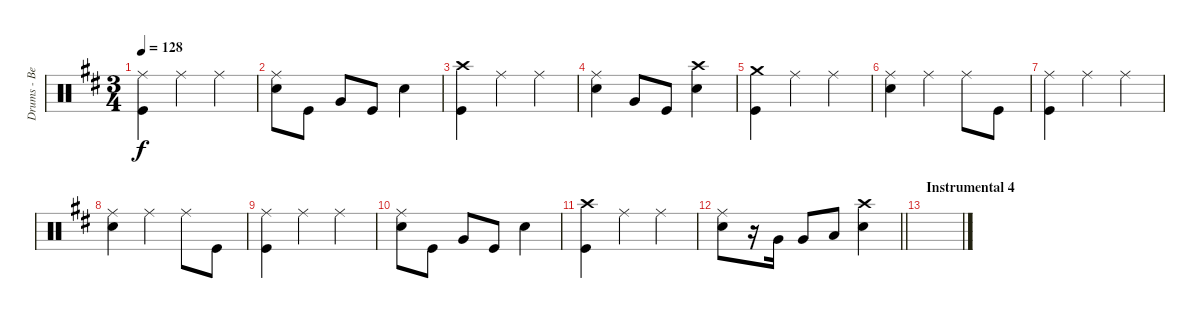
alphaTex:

\track ("Drums - Ben Johnston" "Drums - Be") {instrument percussion}
\staff {score}
\articulation defaults
\ts (3 4)
\tempo 128
\clef neutral
\ks d
("Ride (middle)" "Kick (hit)").4{dy f} "Ride (middle)".4 "Ride (middle)".4 |
("Ride (middle)" "Snare (hit) 2").8 "Kick (hit)".8 "Very Low Tom (hit)".8 "Kick (hit)".8 "Snare (hit) 2".4 |
("Crash high (hit)" "Kick (hit)").4 "Ride (middle)".4 "Ride (middle)".4 |
("Ride (middle)" "Snare (hit) 2").4 "Very Low Tom (hit)".8 "Kick (hit)".8 ("Crash high (hit)" "Snare (hit) 2").4 |
("Crash medium (hit)" "Kick (hit)").4 "Ride (middle)".4 "Ride (middle)".4 |
("Ride (middle)" "Snare (hit) 2").4 "Ride (middle)".4 "Ride (middle)".8 "Kick (hit)".8 |
("Ride (middle)" "Kick (hit)").4 "Ride (middle)".4 "Ride (middle)".4 |
("Ride (middle)" "Snare (hit) 2").4 "Ride (middle)".4 "Ride (middle)".8 "Kick (hit)".8 |
("Ride (middle)" "Kick (hit)").4 "Ride (middle)".4 "Ride (middle)".4 |
("Ride (middle)" "Snare (hit) 2").8 "Kick (hit)".8 "Very Low Tom (hit)".8 "Kick (hit)".8 "Snare (hit) 2".4 |
("Crash high (hit)" "Kick (hit)").4 "Ride (middle)".4 "Ride (middle)".4 |
\barLineRight lightlight
("Ride (middle)" "Snare (hit) 2").8 r.16 "Very Low Tom (hit)".16 "Very Low Tom (hit)".8 "Low Floor Tom (hit)".8 ("Crash high (hit)" "Snare (hit) 2").4 |
\section ("" "Instrumental 4")
